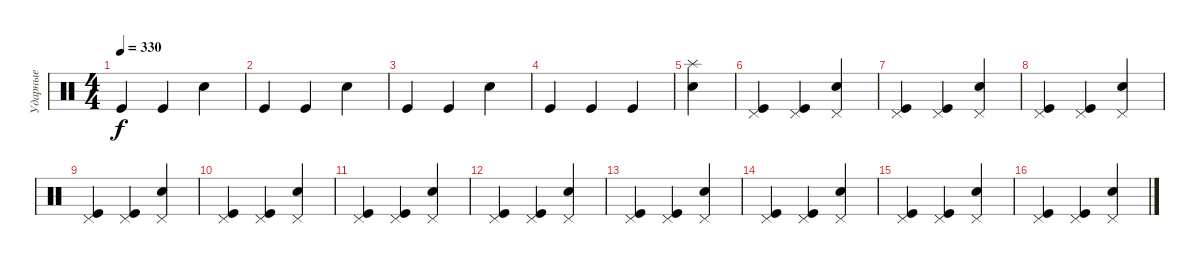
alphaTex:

\track ("Ударные" "Ударные") {instrument percussion}
\staff {score}
\articulation defaults
\ts (4 4)
\tempo 330
\clef neutral
\ks c "Kick (hit)".4{dy f} "Kick (hit)".4 "Snare (hit) 2".4
|
"Kick (hit)".4 "Kick (hit)".4 "Snare (hit) 2".4 |
"Kick (hit)".4 "Kick (hit)".4 "Snare (hit) 2".4 |
"Kick (hit)".4 "Kick (hit)".4 "Kick (hit)".4 |
("Snare (hit) 2" "Splash (hit)").4 |
("Kick (hit)" "Pedal Hi-Hat (hit)").4 ("Kick (hit)" "Pedal Hi-Hat (hit)").4 ("Snare (hit) 2" "Pedal Hi-Hat (hit)").4 |
("Kick (hit)" "Pedal Hi-Hat (hit)").4 ("Kick (hit)" "Pedal Hi-Hat (hit)").4 ("Snare (hit) 2" "Pedal Hi-Hat (hit)").4 |
("Kick (hit)" "Pedal Hi-Hat (hit)").4 ("Kick (hit)" "Pedal Hi-Hat (hit)").4 ("Snare (hit) 2" "Pedal Hi-Hat (hit)").4 |
("Kick (hit)" "Pedal Hi-Hat (hit)").4 ("Kick (hit)" "Pedal Hi-Hat (hit)").4 ("Snare (hit) 2" "Pedal Hi-Hat (hit)").4 |
("Kick (hit)" "Pedal Hi-Hat (hit)").4 ("Kick (hit)" "Pedal Hi-Hat (hit)").4 ("Snare (hit) 2" "Pedal Hi-Hat (hit)").4 |
("Kick (hit)" "Pedal Hi-Hat (hit)").4 ("Kick (hit)" "Pedal Hi-Hat (hit)").4 ("Snare (hit) 2" "Pedal Hi-Hat (hit)").4 |
("Kick (hit)" "Pedal Hi-Hat (hit)").4 ("Kick (hit)" "Pedal Hi-Hat (hit)").4 ("Snare (hit) 2" "Pedal Hi-Hat (hit)").4 |
("Kick (hit)" "Pedal Hi-Hat (hit)").4 ("Kick (hit)" "Pedal Hi-Hat (hit)").4 ("Snare (hit) 2" "Pedal Hi-Hat (hit)").4 |
("Kick (hit)" "Pedal Hi-Hat (hit)").4 ("Kick (hit)" "Pedal Hi-Hat (hit)").4 ("Snare (hit) 2" "Pedal Hi-Hat (hit)").4 |
("Kick (hit)" "Pedal Hi-Hat (hit)").4 ("Kick (hit)" "Pedal Hi-Hat (hit)").4 ("Snare (hit) 2" "Pedal Hi-Hat (hit)").4 |
("Kick (hit)" "Pedal Hi-Hat (hit)").4 ("Kick (hit)" "Pedal Hi-Hat (hit)").4 ("Snare (hit) 2" "Pedal Hi-Hat (hit)").4
